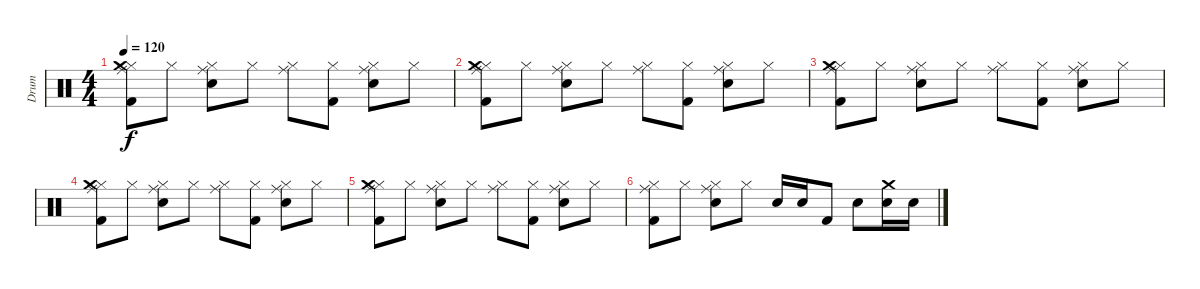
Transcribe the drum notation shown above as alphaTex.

\track ("Drum" "Drum") {instrument percussion}
\staff {score}
\articulation defaults
\ts (4 4)
\tempo 120
\clef neutral
\ks c
("Hi-Hat (closed)" "Kick (hit) 2" "Ride (middle)" "Crash medium (hit)").8{dy f} "Hi-Hat (closed)".8 ("Hi-Hat (closed)" "Snare (hit) 2" "Ride (middle)").8 "Hi-Hat (closed)".8 ("Hi-Hat (closed)" "Ride (middle)").8 ("Hi-Hat (closed)" "Kick (hit) 2").8 ("Hi-Hat (closed)" "Snare (hit) 2" "Ride (middle)").8 "Hi-Hat (closed)".8 |
("Hi-Hat (closed)" "Kick (hit) 2" "Ride (middle)" "Crash medium (hit)").8 "Hi-Hat (closed)".8 ("Hi-Hat (closed)" "Snare (hit) 2" "Ride (middle)").8 "Hi-Hat (closed)".8 ("Hi-Hat (closed)" "Ride (middle)").8 ("Hi-Hat (closed)" "Kick (hit) 2").8 ("Hi-Hat (closed)" "Snare (hit) 2" "Ride (middle)").8 "Hi-Hat (closed)".8 |
("Hi-Hat (closed)" "Kick (hit) 2" "Ride (middle)" "Crash medium (hit)").8 "Hi-Hat (closed)".8 ("Hi-Hat (closed)" "Snare (hit) 2" "Ride (middle)").8 "Hi-Hat (closed)".8 ("Hi-Hat (closed)" "Ride (middle)").8 ("Hi-Hat (closed)" "Kick (hit) 2").8 ("Hi-Hat (closed)" "Snare (hit) 2" "Ride (middle)").8 "Hi-Hat (closed)".8 |
("Hi-Hat (closed)" "Kick (hit) 2" "Ride (middle)" "Crash medium (hit)").8 "Hi-Hat (closed)".8 ("Hi-Hat (closed)" "Snare (hit) 2" "Ride (middle)").8 "Hi-Hat (closed)".8 ("Hi-Hat (closed)" "Ride (middle)").8 ("Hi-Hat (closed)" "Kick (hit) 2").8 ("Hi-Hat (closed)" "Snare (hit) 2" "Ride (middle)").8 "Hi-Hat (closed)".8 |
("Hi-Hat (closed)" "Kick (hit) 2" "Ride (middle)" "Crash medium (hit)").8 "Hi-Hat (closed)".8 ("Hi-Hat (closed)" "Snare (hit) 2" "Ride (middle)").8 "Hi-Hat (closed)".8 ("Hi-Hat (closed)" "Ride (middle)").8 ("Hi-Hat (closed)" "Kick (hit) 2").8 ("Hi-Hat (closed)" "Snare (hit) 2" "Ride (middle)").8 "Hi-Hat (closed)".8 |
("Hi-Hat (closed)" "Kick (hit) 2" "Ride (middle)").8 "Hi-Hat (closed)".8 ("Hi-Hat (closed)" "Snare (hit) 2" "Ride (middle)").8 "Hi-Hat (closed)".8 "Snare (hit) 2".16 "Snare (hit) 2".16 "Kick (hit) 2".8 "Snare (hit) 2".8 ("Crash medium (hit)" "Snare (hit) 2").16 "Snare (hit) 2".16
